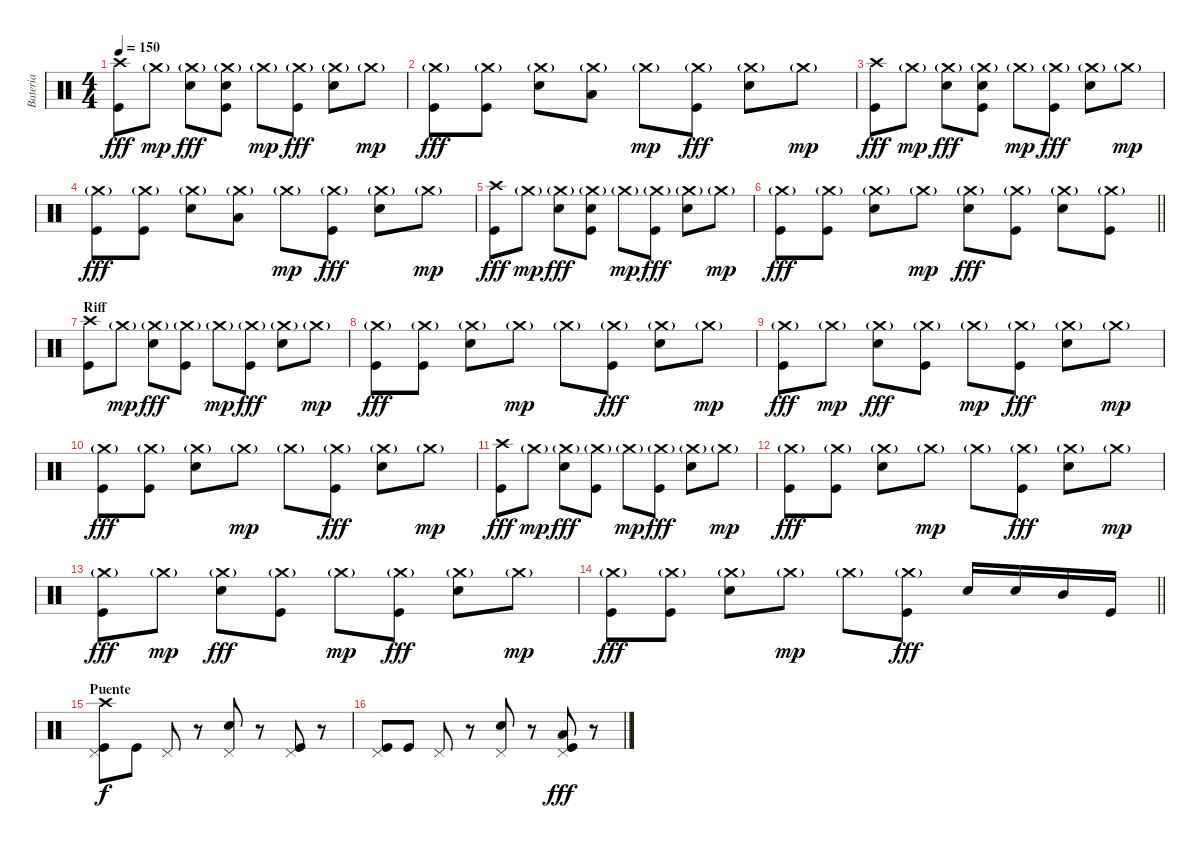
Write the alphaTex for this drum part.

\track ("Bateria" "Bateria") {instrument percussion}
\staff {score}
\articulation defaults
\ts (4 4)
\tempo 150
\clef neutral
\ks c
("Crash high (hit)" "Kick (hit)").8{dy fff} "Crash medium (hit)"{g}.8{dy mp} ("Crash medium (hit)"{g} "Electric Snare (hit)").8{dy fff} ("Crash medium (hit)"{g} "Electric Snare (hit)" "Kick (hit)").8 "Crash medium (hit)"{g}.8{dy mp} ("Crash medium (hit)"{g} "Kick (hit)").8{dy fff} ("Crash medium (hit)"{g} "Electric Snare (hit)").8 "Crash medium (hit)"{g}.8{dy mp} |
("Crash medium (hit)"{g} "Kick (hit)").8{dy fff} ("Crash medium (hit)"{g} "Kick (hit)").8 ("Crash medium (hit)"{g} "Electric Snare (hit)").8 ("Crash medium (hit)"{g} "Low Tom (hit)").8 "Crash medium (hit)"{g}.8{dy mp} ("Crash medium (hit)"{g} "Kick (hit)").8{dy fff} ("Crash medium (hit)"{g} "Electric Snare (hit)").8 "Crash medium (hit)"{g}.8{dy mp} |
("Crash high (hit)" "Kick (hit)").8{dy fff} "Crash medium (hit)"{g}.8{dy mp} ("Crash medium (hit)"{g} "Electric Snare (hit)").8{dy fff} ("Crash medium (hit)"{g} "Electric Snare (hit)" "Kick (hit)").8 "Crash medium (hit)"{g}.8{dy mp} ("Crash medium (hit)"{g} "Kick (hit)").8{dy fff} ("Crash medium (hit)"{g} "Electric Snare (hit)").8 "Crash medium (hit)"{g}.8{dy mp} |
("Crash medium (hit)"{g} "Kick (hit)").8{dy fff} ("Crash medium (hit)"{g} "Kick (hit)").8 ("Crash medium (hit)"{g} "Electric Snare (hit)").8 ("Crash medium (hit)"{g} "Low Tom (hit)").8 "Crash medium (hit)"{g}.8{dy mp} ("Crash medium (hit)"{g} "Kick (hit)").8{dy fff} ("Crash medium (hit)"{g} "Electric Snare (hit)").8 "Crash medium (hit)"{g}.8{dy mp} |
("Crash high (hit)" "Kick (hit)").8{dy fff} "Crash medium (hit)"{g}.8{dy mp} ("Crash medium (hit)"{g} "Electric Snare (hit)").8{dy fff} ("Crash medium (hit)"{g} "Electric Snare (hit)" "Kick (hit)").8 "Crash medium (hit)"{g}.8{dy mp} ("Crash medium (hit)"{g} "Kick (hit)").8{dy fff} ("Crash medium (hit)"{g} "Electric Snare (hit)").8 "Crash medium (hit)"{g}.8{dy mp} |
\barLineRight lightlight
("Crash medium (hit)"{g} "Kick (hit)").8{dy fff} ("Crash medium (hit)"{g} "Kick (hit)").8 ("Crash medium (hit)"{g} "Electric Snare (hit)").8 "Crash medium (hit)"{g}.8{dy mp} ("Crash medium (hit)"{g} "Electric Snare (hit)").8{dy fff} ("Crash medium (hit)"{g} "Kick (hit)").8 ("Crash medium (hit)"{g} "Electric Snare (hit)").8 ("Crash medium (hit)"{g} "Kick (hit)").8 |
\section ("" "Riff")
("Crash high (hit)" "Kick (hit)").8 "Crash medium (hit)"{g}.8{dy mp} ("Crash medium (hit)"{g} "Electric Snare (hit)").8{dy fff} ("Crash medium (hit)"{g} "Kick (hit)").8 "Crash medium (hit)"{g}.8{dy mp} ("Crash medium (hit)"{g} "Kick (hit)").8{dy fff} ("Crash medium (hit)"{g} "Electric Snare (hit)").8 "Crash medium (hit)"{g}.8{dy mp} |
("Crash medium (hit)"{g} "Kick (hit)").8{dy fff} ("Crash medium (hit)"{g} "Kick (hit)").8 ("Crash medium (hit)"{g} "Electric Snare (hit)").8 "Crash medium (hit)"{g}.8{dy mp} "Crash medium (hit)"{g}.8 ("Crash medium (hit)"{g} "Kick (hit)").8{dy fff} ("Crash medium (hit)"{g} "Electric Snare (hit)").8 "Crash medium (hit)"{g}.8{dy mp} |
("Crash medium (hit)"{g} "Kick (hit)").8{dy fff} "Crash medium (hit)"{g}.8{dy mp} ("Crash medium (hit)"{g} "Electric Snare (hit)").8{dy fff} ("Crash medium (hit)"{g} "Kick (hit)").8 "Crash medium (hit)"{g}.8{dy mp} ("Crash medium (hit)"{g} "Kick (hit)").8{dy fff} ("Crash medium (hit)"{g} "Electric Snare (hit)").8 "Crash medium (hit)"{g}.8{dy mp} |
("Crash medium (hit)"{g} "Kick (hit)").8{dy fff} ("Crash medium (hit)"{g} "Kick (hit)").8 ("Crash medium (hit)"{g} "Electric Snare (hit)").8 "Crash medium (hit)"{g}.8{dy mp} "Crash medium (hit)"{g}.8 ("Crash medium (hit)"{g} "Kick (hit)").8{dy fff} ("Crash medium (hit)"{g} "Electric Snare (hit)").8 "Crash medium (hit)"{g}.8{dy mp} |
("Crash high (hit)" "Kick (hit)").8{dy fff} "Crash medium (hit)"{g}.8{dy mp} ("Crash medium (hit)"{g} "Electric Snare (hit)").8{dy fff} ("Crash medium (hit)"{g} "Kick (hit)").8 "Crash medium (hit)"{g}.8{dy mp} ("Crash medium (hit)"{g} "Kick (hit)").8{dy fff} ("Crash medium (hit)"{g} "Electric Snare (hit)").8 "Crash medium (hit)"{g}.8{dy mp} |
("Crash medium (hit)"{g} "Kick (hit)").8{dy fff} ("Crash medium (hit)"{g} "Kick (hit)").8 ("Crash medium (hit)"{g} "Electric Snare (hit)").8 "Crash medium (hit)"{g}.8{dy mp} "Crash medium (hit)"{g}.8 ("Crash medium (hit)"{g} "Kick (hit)").8{dy fff} ("Crash medium (hit)"{g} "Electric Snare (hit)").8 "Crash medium (hit)"{g}.8{dy mp} |
("Crash medium (hit)"{g} "Kick (hit)").8{dy fff} "Crash medium (hit)"{g}.8{dy mp} ("Crash medium (hit)"{g} "Electric Snare (hit)").8{dy fff} ("Crash medium (hit)"{g} "Kick (hit)").8 "Crash medium (hit)"{g}.8{dy mp} ("Crash medium (hit)"{g} "Kick (hit)").8{dy fff} ("Crash medium (hit)"{g} "Electric Snare (hit)").8 "Crash medium (hit)"{g}.8{dy mp} |
\barLineRight lightlight
("Crash medium (hit)"{g} "Kick (hit)").8{dy fff} ("Crash medium (hit)"{g} "Kick (hit)").8 ("Crash medium (hit)"{g} "Electric Snare (hit)").8 "Crash medium (hit)"{g}.8{dy mp} "Crash medium (hit)"{g}.8 ("Crash medium (hit)"{g} "Kick (hit)").8{dy fff} "Electric Snare (hit)".16 "Electric Snare (hit)".16 "Mid Tom (hit)".16 "Kick (hit)".16 |
\section ("" "Puente")
("Pedal Hi-Hat (hit)" "Kick (hit)" "Crash high (hit)").8{dy f} "Kick (hit)".8 "Pedal Hi-Hat (hit)".8 r.8 ("Pedal Hi-Hat (hit)" "Electric Snare (hit)").8 r.8 ("Pedal Hi-Hat (hit)" "Kick (hit)").8 r.8 |
("Pedal Hi-Hat (hit)" "Kick (hit)").8 "Kick (hit)".8 "Pedal Hi-Hat (hit)".8 r.8 ("Pedal Hi-Hat (hit)" "Electric Snare (hit)").8 r.8 ("Pedal Hi-Hat (hit)" "Low Tom (hit)" "Kick (hit)").8{dy fff} r.8
